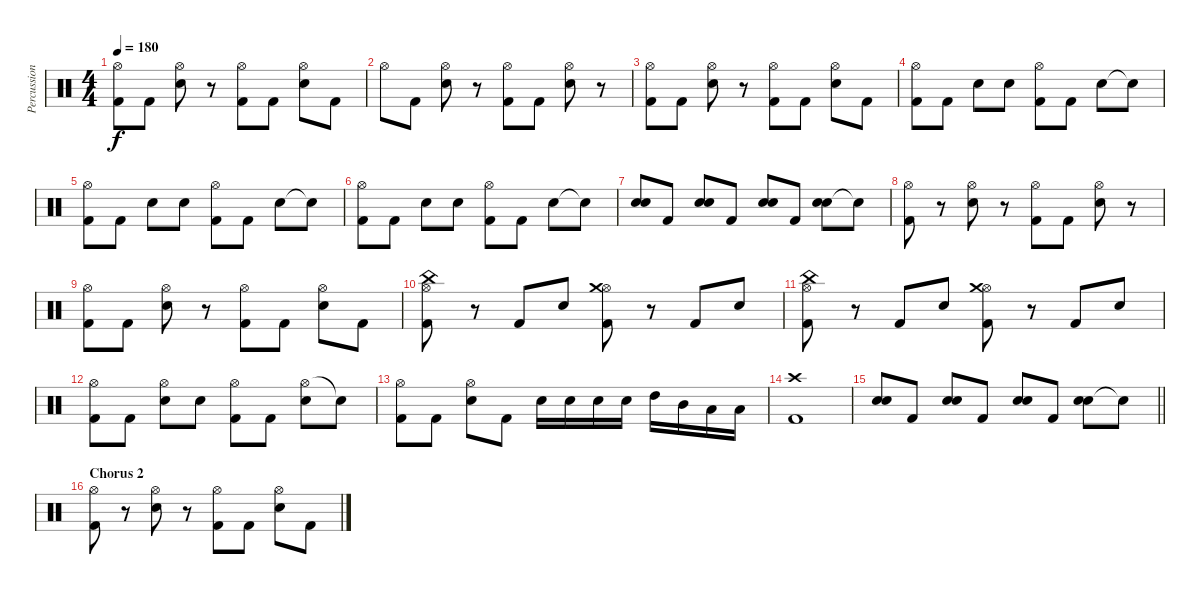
\track ("Percussion" "Percussion") {instrument percussion}
\staff {score}
\articulation defaults
\ts (4 4)
\tempo 180
\clef neutral
\ks c
("Hi-Hat (open)" "Kick (hit) 2").8{dy f} "Kick (hit) 2".8 ("Hi-Hat (open)" "Electric Snare (hit)").8 r.8 ("Hi-Hat (open)" "Kick (hit) 2").8 "Kick (hit) 2".8 ("Hi-Hat (open)" "Electric Snare (hit)").8 "Kick (hit) 2".8 |
"Hi-Hat (open)".8 "Kick (hit) 2".8 ("Hi-Hat (open)" "Electric Snare (hit)").8 r.8 ("Hi-Hat (open)" "Kick (hit) 2").8 "Kick (hit) 2".8 ("Hi-Hat (open)" "Electric Snare (hit)").8 r.8 |
("Hi-Hat (open)" "Kick (hit) 2").8 "Kick (hit) 2".8 ("Hi-Hat (open)" "Electric Snare (hit)").8 r.8 ("Hi-Hat (open)" "Kick (hit) 2").8 "Kick (hit) 2".8 ("Hi-Hat (open)" "Electric Snare (hit)").8 "Kick (hit) 2".8 |
("Hi-Hat (open)" "Kick (hit) 2").8 "Kick (hit) 2".8 "Electric Snare (hit)".8 "Electric Snare (hit)".8 ("Hi-Hat (open)" "Kick (hit) 2").8 "Kick (hit) 2".8 "Electric Snare (hit)".8 "Snare (hit)"{t}.8 |
("Hi-Hat (open)" "Kick (hit) 2").8 "Kick (hit) 2".8 "Electric Snare (hit)".8 "Electric Snare (hit)".8 ("Hi-Hat (open)" "Kick (hit) 2").8 "Kick (hit) 2".8 "Electric Snare (hit)".8 "Snare (hit)"{t}.8 |
("Hi-Hat (open)" "Kick (hit) 2").8 "Kick (hit) 2".8 "Electric Snare (hit)".8 "Electric Snare (hit)".8 ("Hi-Hat (open)" "Kick (hit) 2").8 "Kick (hit) 2".8 "Electric Snare (hit)".8 "Snare (hit)"{t}.8 |
("Snare (hit) 2" "Electric Snare (hit)").8 "Kick (hit) 2".8 ("Snare (hit) 2" "Electric Snare (hit)").8 "Kick (hit) 2".8 ("Snare (hit) 2" "Electric Snare (hit)").8 "Kick (hit) 2".8 ("Snare (hit) 2" "Electric Snare (hit)").8 "Snare (hit)"{t}.8 |
("Hi-Hat (open)" "Kick (hit) 2").8 r.8 ("Hi-Hat (open)" "Electric Snare (hit)").8 r.8 ("Hi-Hat (open)" "Kick (hit) 2").8 "Kick (hit) 2".8 ("Hi-Hat (open)" "Electric Snare (hit)").8 r.8 |
("Hi-Hat (open)" "Kick (hit) 2").8 "Kick (hit) 2".8 ("Hi-Hat (open)" "Electric Snare (hit)").8 r.8 ("Hi-Hat (open)" "Kick (hit) 2").8 "Kick (hit) 2".8 ("Hi-Hat (open)" "Electric Snare (hit)").8 "Kick (hit) 2".8 |
("China (hit)" "Hi-Hat (open)" "Kick (hit) 2").8 r.8 "Kick (hit) 2".8 "Electric Snare (hit)".8 ("Hi-Hat (open)" "Crash medium (hit)" "Kick (hit) 2").8 r.8 "Kick (hit) 2".8 "Electric Snare (hit)".8 |
("Hi-Hat (open)" "China (hit)" "Kick (hit) 2").8 r.8 "Kick (hit) 2".8 "Electric Snare (hit)".8 ("Hi-Hat (open)" "Crash medium (hit)" "Kick (hit) 2").8 r.8 "Kick (hit) 2".8 "Electric Snare (hit)".8 |
("Hi-Hat (open)" "Kick (hit) 2").8 "Kick (hit) 2".8 ("Hi-Hat (open)" "Electric Snare (hit)").8 "Electric Snare (hit)".8 ("Hi-Hat (open)" "Kick (hit) 2").8 "Kick (hit) 2".8 ("Hi-Hat (open)" "Electric Snare (hit)").8 "Snare (hit)"{t}.8 |
("Hi-Hat (open)" "Kick (hit) 2").8 "Kick (hit) 2".8 ("Hi-Hat (open)" "Electric Snare (hit)").8 "Kick (hit) 2".8 "Electric Snare (hit)".16 "Electric Snare (hit)".16 "Electric Snare (hit)".16 "Electric Snare (hit)".16 "High Tom (hit)".16 "Mid Tom (hit)".16 "Low Tom (hit)".16 "Low Tom (hit)".16 |
("Crash high (hit)" "Kick (hit) 2").1 |
\barLineRight lightlight
("Snare (hit) 2" "Electric Snare (hit)").8 "Kick (hit) 2".8 ("Snare (hit) 2" "Electric Snare (hit)").8 "Kick (hit) 2".8 ("Snare (hit) 2" "Electric Snare (hit)").8 "Kick (hit) 2".8 ("Snare (hit) 2" "Electric Snare (hit)").8 "Snare (hit)"{t}.8 |
\section ("" "Chorus 2")
("Hi-Hat (open)" "Kick (hit) 2").8 r.8 ("Hi-Hat (open)" "Electric Snare (hit)").8 r.8 ("Hi-Hat (open)" "Kick (hit) 2").8 "Kick (hit) 2".8 ("Hi-Hat (open)" "Electric Snare (hit)").8 "Kick (hit) 2".8
